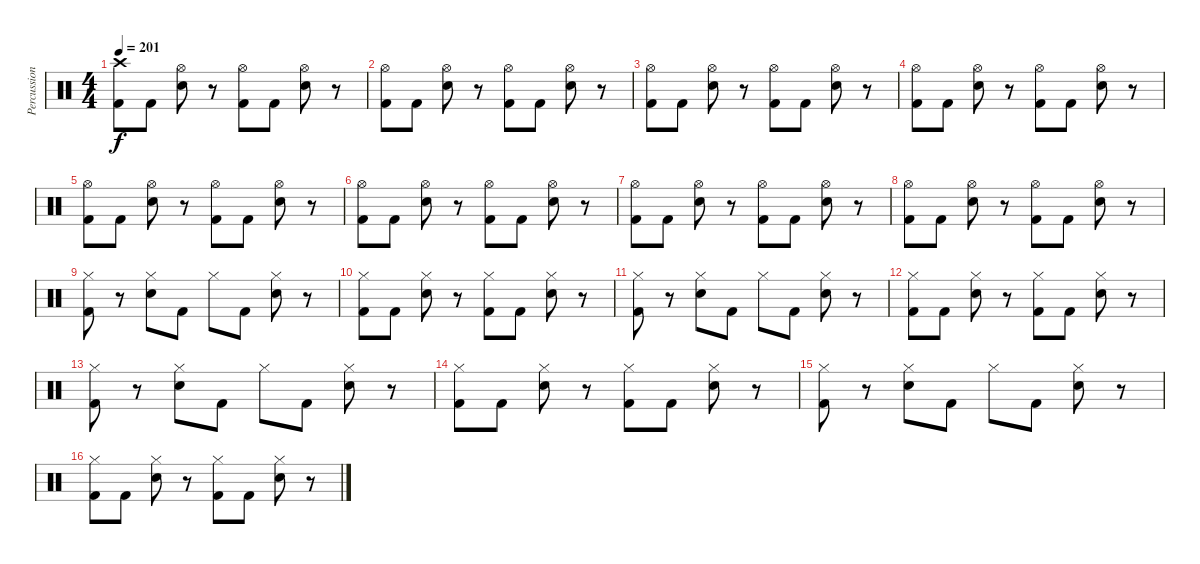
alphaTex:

\track ("Percussion" "Percussion") {instrument percussion}
\staff {score}
\articulation defaults
\ts (4 4)
\tempo 201
\clef neutral
\ks c
("Crash high (hit)" "Kick (hit) 2").8{dy f} "Kick (hit) 2".8 ("Hi-Hat (open)" "Electric Snare (hit)").8 r.8 ("Hi-Hat (open)" "Kick (hit) 2").8 "Kick (hit) 2".8 ("Hi-Hat (open)" "Electric Snare (hit)").8 r.8 |
("Hi-Hat (open)" "Kick (hit) 2").8 "Kick (hit) 2".8 ("Hi-Hat (open)" "Electric Snare (hit)").8 r.8 ("Hi-Hat (open)" "Kick (hit) 2").8 "Kick (hit) 2".8 ("Hi-Hat (open)" "Electric Snare (hit)").8 r.8 |
("Hi-Hat (open)" "Kick (hit) 2").8 "Kick (hit) 2".8 ("Hi-Hat (open)" "Electric Snare (hit)").8 r.8 ("Hi-Hat (open)" "Kick (hit) 2").8 "Kick (hit) 2".8 ("Hi-Hat (open)" "Electric Snare (hit)").8 r.8 |
("Hi-Hat (open)" "Kick (hit) 2").8 "Kick (hit) 2".8 ("Hi-Hat (open)" "Electric Snare (hit)").8 r.8 ("Hi-Hat (open)" "Kick (hit) 2").8 "Kick (hit) 2".8 ("Hi-Hat (open)" "Electric Snare (hit)").8 r.8 |
("Hi-Hat (open)" "Kick (hit) 2").8 "Kick (hit) 2".8 ("Hi-Hat (open)" "Electric Snare (hit)").8 r.8 ("Hi-Hat (open)" "Kick (hit) 2").8 "Kick (hit) 2".8 ("Hi-Hat (open)" "Electric Snare (hit)").8 r.8 |
("Hi-Hat (open)" "Kick (hit) 2").8 "Kick (hit) 2".8 ("Hi-Hat (open)" "Electric Snare (hit)").8 r.8 ("Hi-Hat (open)" "Kick (hit) 2").8 "Kick (hit) 2".8 ("Hi-Hat (open)" "Electric Snare (hit)").8 r.8 |
("Hi-Hat (open)" "Kick (hit) 2").8 "Kick (hit) 2".8 ("Hi-Hat (open)" "Electric Snare (hit)").8 r.8 ("Hi-Hat (open)" "Kick (hit) 2").8 "Kick (hit) 2".8 ("Hi-Hat (open)" "Electric Snare (hit)").8 r.8 |
("Hi-Hat (open)" "Kick (hit) 2").8 "Kick (hit) 2".8 ("Hi-Hat (open)" "Electric Snare (hit)").8 r.8 ("Hi-Hat (open)" "Kick (hit) 2").8 "Kick (hit) 2".8 ("Hi-Hat (open)" "Electric Snare (hit)").8 r.8 |
("Hi-Hat (closed)" "Kick (hit) 2").8 r.8 ("Hi-Hat (closed)" "Electric Snare (hit)").8 "Kick (hit) 2".8 "Hi-Hat (closed)".8 "Kick (hit) 2".8 ("Hi-Hat (closed)" "Electric Snare (hit)").8 r.8 |
("Hi-Hat (closed)" "Kick (hit) 2").8 "Kick (hit) 2".8 ("Hi-Hat (closed)" "Electric Snare (hit)").8 r.8 ("Hi-Hat (closed)" "Kick (hit) 2").8 "Kick (hit) 2".8 ("Hi-Hat (closed)" "Electric Snare (hit)").8 r.8 |
("Hi-Hat (closed)" "Kick (hit) 2").8 r.8 ("Hi-Hat (closed)" "Electric Snare (hit)").8 "Kick (hit) 2".8 "Hi-Hat (closed)".8 "Kick (hit) 2".8 ("Hi-Hat (closed)" "Electric Snare (hit)").8 r.8 |
("Hi-Hat (closed)" "Kick (hit) 2").8 "Kick (hit) 2".8 ("Hi-Hat (closed)" "Electric Snare (hit)").8 r.8 ("Hi-Hat (closed)" "Kick (hit) 2").8 "Kick (hit) 2".8 ("Hi-Hat (closed)" "Electric Snare (hit)").8 r.8 |
("Hi-Hat (closed)" "Kick (hit) 2").8 r.8 ("Hi-Hat (closed)" "Electric Snare (hit)").8 "Kick (hit) 2".8 "Hi-Hat (closed)".8 "Kick (hit) 2".8 ("Hi-Hat (closed)" "Electric Snare (hit)").8 r.8 |
("Hi-Hat (closed)" "Kick (hit) 2").8 "Kick (hit) 2".8 ("Hi-Hat (closed)" "Electric Snare (hit)").8 r.8 ("Hi-Hat (closed)" "Kick (hit) 2").8 "Kick (hit) 2".8 ("Hi-Hat (closed)" "Electric Snare (hit)").8 r.8 |
("Hi-Hat (closed)" "Kick (hit) 2").8 r.8 ("Hi-Hat (closed)" "Electric Snare (hit)").8 "Kick (hit) 2".8 "Hi-Hat (closed)".8 "Kick (hit) 2".8 ("Hi-Hat (closed)" "Electric Snare (hit)").8 r.8 |
("Hi-Hat (closed)" "Kick (hit) 2").8 "Kick (hit) 2".8 ("Hi-Hat (closed)" "Electric Snare (hit)").8 r.8 ("Hi-Hat (closed)" "Kick (hit) 2").8 "Kick (hit) 2".8 ("Hi-Hat (closed)" "Electric Snare (hit)").8 r.8
